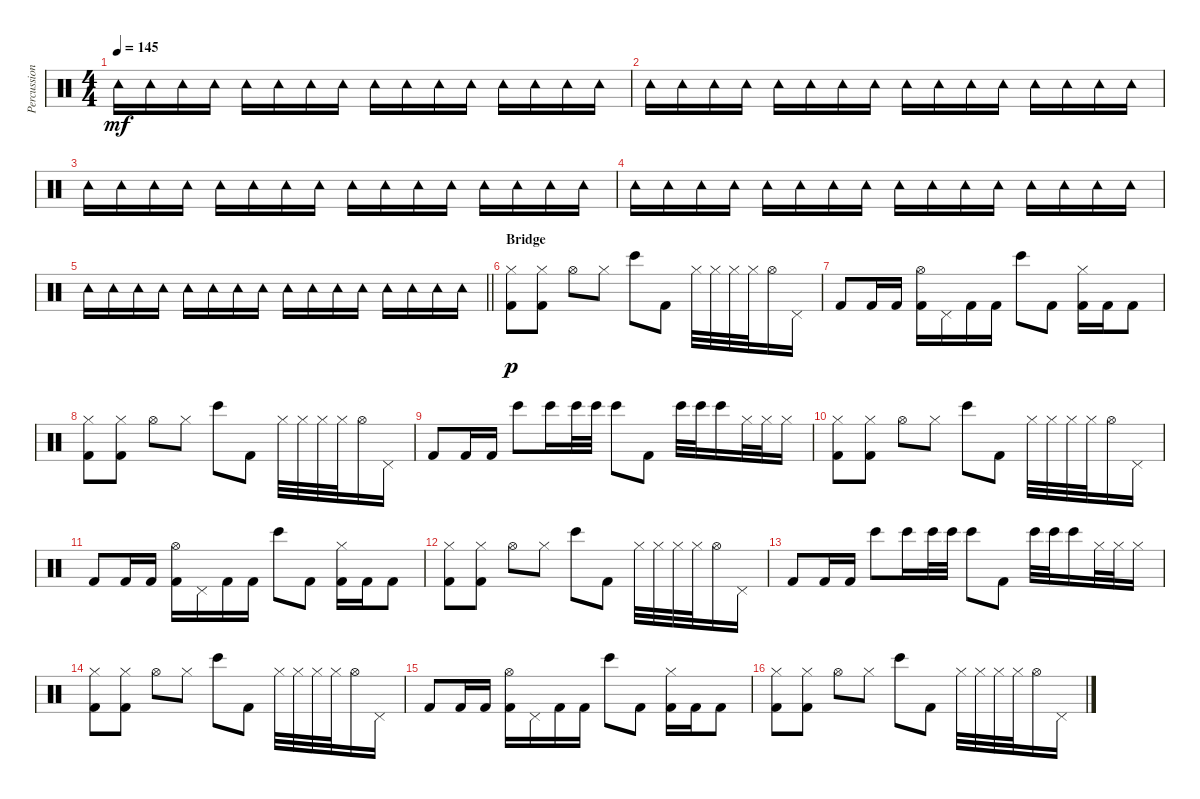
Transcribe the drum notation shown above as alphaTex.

\track ("Percussion" "Percussion") {instrument percussion}
\staff {score}
\articulation defaults
\ts (4 4)
\tempo 145
\clef neutral
\ks c "Tambourine (hit)".16{dy mf} "Tambourine (hit)".16 "Tambourine (hit)".16 "Tambourine (hit)".16 "Tambourine (hit)".16 "Tambourine (hit)".16 "Tambourine (hit)".16 "Tambourine (hit)".16 "Tambourine (hit)".16 "Tambourine (hit)".16 "Tambourine (hit)".16 "Tambourine (hit)".16 "Tambourine (hit)".16 "Tambourine (hit)".16 "Tambourine (hit)".16 "Tambourine (hit)".16
|
"Tambourine (hit)".16 "Tambourine (hit)".16 "Tambourine (hit)".16 "Tambourine (hit)".16 "Tambourine (hit)".16 "Tambourine (hit)".16 "Tambourine (hit)".16 "Tambourine (hit)".16 "Tambourine (hit)".16 "Tambourine (hit)".16 "Tambourine (hit)".16 "Tambourine (hit)".16 "Tambourine (hit)".16 "Tambourine (hit)".16 "Tambourine (hit)".16 "Tambourine (hit)".16 |
"Tambourine (hit)".16 "Tambourine (hit)".16 "Tambourine (hit)".16 "Tambourine (hit)".16 "Tambourine (hit)".16 "Tambourine (hit)".16 "Tambourine (hit)".16 "Tambourine (hit)".16 "Tambourine (hit)".16 "Tambourine (hit)".16 "Tambourine (hit)".16 "Tambourine (hit)".16 "Tambourine (hit)".16 "Tambourine (hit)".16 "Tambourine (hit)".16 "Tambourine (hit)".16 |
"Tambourine (hit)".16 "Tambourine (hit)".16 "Tambourine (hit)".16 "Tambourine (hit)".16 "Tambourine (hit)".16 "Tambourine (hit)".16 "Tambourine (hit)".16 "Tambourine (hit)".16 "Tambourine (hit)".16 "Tambourine (hit)".16 "Tambourine (hit)".16 "Tambourine (hit)".16 "Tambourine (hit)".16 "Tambourine (hit)".16 "Tambourine (hit)".16 "Tambourine (hit)".16 |
\barLineRight lightlight "Tambourine (hit)".16 "Tambourine (hit)".16 "Tambourine (hit)".16 "Tambourine (hit)".16 "Tambourine (hit)".16 "Tambourine (hit)".16 "Tambourine (hit)".16 "Tambourine (hit)".16 "Tambourine (hit)".16 "Tambourine (hit)".16 "Tambourine (hit)".16 "Tambourine (hit)".16 "Tambourine (hit)".16 "Tambourine (hit)".16 "Tambourine (hit)".16 "Tambourine (hit)".16
|
\section ("" "Bridge")
("Hi-Hat (closed)" "Kick (hit) 2").8{dy p} ("Hi-Hat (closed)" "Kick (hit) 2").8 "Hi-Hat (open)".8 "Hi-Hat (closed)".8 "Bongo High (hit)".8 "Kick (hit) 2".8 "Hi-Hat (closed)".32 "Hi-Hat (closed)".32 "Hi-Hat (closed)".32 "Hi-Hat (closed)".32 "Hi-Hat (open)".16 "Pedal Hi-Hat (hit)".16 |
"Kick (hit) 2".8 "Kick (hit) 2".16 "Kick (hit) 2".16 ("Hi-Hat (open)" "Kick (hit) 2").16 "Pedal Hi-Hat (hit)".16 "Kick (hit) 2".16 "Kick (hit) 2".16 "Bongo High (hit)".8 "Kick (hit) 2".8 ("Hi-Hat (closed)" "Kick (hit) 2").16 "Kick (hit) 2".16 "Kick (hit) 2".8 |
("Hi-Hat (closed)" "Kick (hit) 2").8 ("Hi-Hat (closed)" "Kick (hit) 2").8 "Hi-Hat (open)".8 "Hi-Hat (closed)".8 "Bongo High (hit)".8 "Kick (hit) 2".8 "Hi-Hat (closed)".32 "Hi-Hat (closed)".32 "Hi-Hat (closed)".32 "Hi-Hat (closed)".32 "Hi-Hat (open)".16 "Pedal Hi-Hat (hit)".16 |
"Kick (hit) 2".8 "Kick (hit) 2".16 "Kick (hit) 2".16 "Bongo High (hit)".8 "Bongo High (hit)".16 "Bongo High (hit)".32 "Bongo High (hit)".32 "Bongo High (hit)".8 "Kick (hit) 2".8 "Bongo High (hit)".32 "Bongo High (hit)".32 "Bongo High (hit)".16 "Hi-Hat (closed)".32 "Hi-Hat (closed)".32 "Hi-Hat (closed)".16 |
("Hi-Hat (closed)" "Kick (hit) 2").8 ("Hi-Hat (closed)" "Kick (hit) 2").8 "Hi-Hat (open)".8 "Hi-Hat (closed)".8 "Bongo High (hit)".8 "Kick (hit) 2".8 "Hi-Hat (closed)".32 "Hi-Hat (closed)".32 "Hi-Hat (closed)".32 "Hi-Hat (closed)".32 "Hi-Hat (open)".16 "Pedal Hi-Hat (hit)".16 |
"Kick (hit) 2".8 "Kick (hit) 2".16 "Kick (hit) 2".16 ("Hi-Hat (open)" "Kick (hit) 2").16 "Pedal Hi-Hat (hit)".16 "Kick (hit) 2".16 "Kick (hit) 2".16 "Bongo High (hit)".8 "Kick (hit) 2".8 ("Hi-Hat (closed)" "Kick (hit) 2").16 "Kick (hit) 2".16 "Kick (hit) 2".8 |
("Hi-Hat (closed)" "Kick (hit) 2").8 ("Hi-Hat (closed)" "Kick (hit) 2").8 "Hi-Hat (open)".8 "Hi-Hat (closed)".8 "Bongo High (hit)".8 "Kick (hit) 2".8 "Hi-Hat (closed)".32 "Hi-Hat (closed)".32 "Hi-Hat (closed)".32 "Hi-Hat (closed)".32 "Hi-Hat (open)".16 "Pedal Hi-Hat (hit)".16 |
"Kick (hit) 2".8 "Kick (hit) 2".16 "Kick (hit) 2".16 "Bongo High (hit)".8 "Bongo High (hit)".16 "Bongo High (hit)".32 "Bongo High (hit)".32 "Bongo High (hit)".8 "Kick (hit) 2".8 "Bongo High (hit)".32 "Bongo High (hit)".32 "Bongo High (hit)".16 "Hi-Hat (closed)".32 "Hi-Hat (closed)".32 "Hi-Hat (closed)".16 |
("Hi-Hat (closed)" "Kick (hit) 2").8 ("Hi-Hat (closed)" "Kick (hit) 2").8 "Hi-Hat (open)".8 "Hi-Hat (closed)".8 "Bongo High (hit)".8 "Kick (hit) 2".8 "Hi-Hat (closed)".32 "Hi-Hat (closed)".32 "Hi-Hat (closed)".32 "Hi-Hat (closed)".32 "Hi-Hat (open)".16 "Pedal Hi-Hat (hit)".16 |
"Kick (hit) 2".8 "Kick (hit) 2".16 "Kick (hit) 2".16 ("Hi-Hat (open)" "Kick (hit) 2").16 "Pedal Hi-Hat (hit)".16 "Kick (hit) 2".16 "Kick (hit) 2".16 "Bongo High (hit)".8 "Kick (hit) 2".8 ("Hi-Hat (closed)" "Kick (hit) 2").16 "Kick (hit) 2".16 "Kick (hit) 2".8 |
("Hi-Hat (closed)" "Kick (hit) 2").8 ("Hi-Hat (closed)" "Kick (hit) 2").8 "Hi-Hat (open)".8 "Hi-Hat (closed)".8 "Bongo High (hit)".8 "Kick (hit) 2".8 "Hi-Hat (closed)".32 "Hi-Hat (closed)".32 "Hi-Hat (closed)".32 "Hi-Hat (closed)".32 "Hi-Hat (open)".16 "Pedal Hi-Hat (hit)".16
